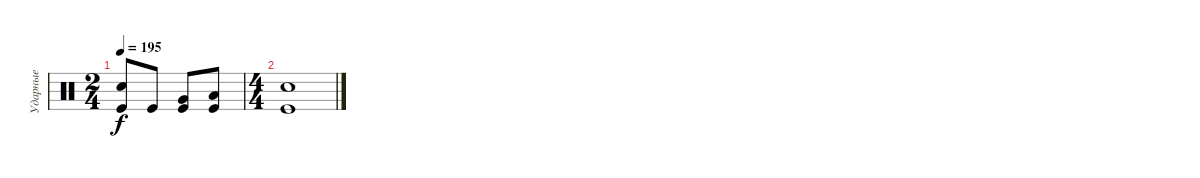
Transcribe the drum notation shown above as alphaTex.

\track ("Ударные" "Ударные") {instrument percussion}
\staff {score}
\articulation defaults
\ts (2 4)
\tempo 195
\clef neutral
\ks c
("Snare (hit)"{t} "Kick (hit)"{t}).8{dy f} "Kick (hit)".8 ("Very Low Tom (hit)" "Kick (hit)").8 ("Low Tom (hit)" "Kick (hit)").8 |
\ts (4 4)
("Electric Snare (hit)" "Kick (hit)").1
